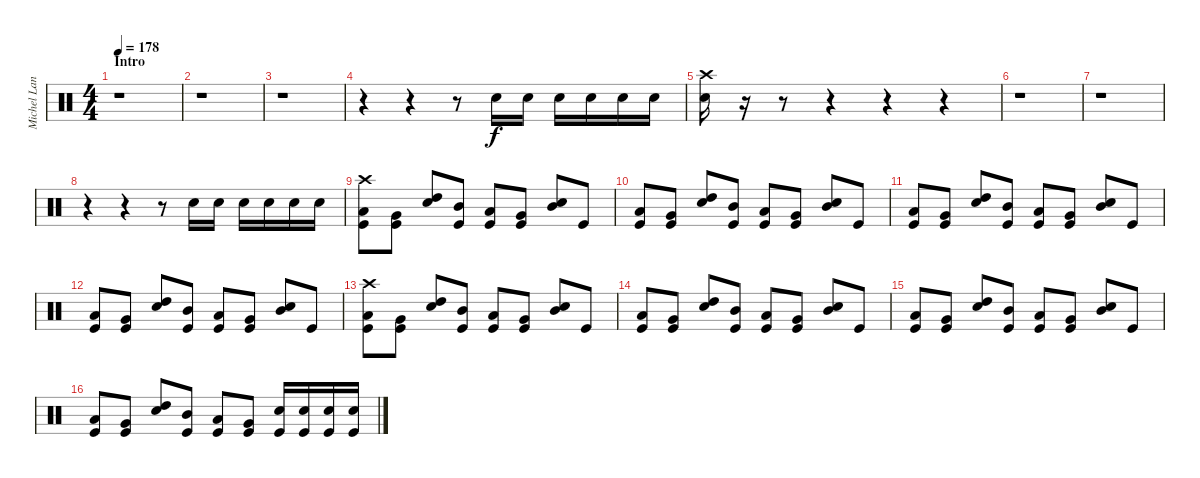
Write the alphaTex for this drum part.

\track ("Michel Langevin [Drums]" "Michel Lan") {instrument percussion}
\staff {score}
\articulation defaults
\ts (4 4)
\section ("" "Intro")
\tempo 178
\clef neutral
\ks c
r.1{dy f} |
r.1 |
r.1 |
r.4 r.4 r.8 "Snare (hit) 2".16 "Snare (hit) 2".16 "Snare (hit) 2".16 "Snare (hit) 2".16 "Snare (hit) 2".16 "Snare (hit) 2".16 |
("Snare (hit) 2" "Crash high (hit)").16 r.16 r.8 r.4 r.4 r.4 |
r.1 |
r.1 |
r.4 r.4 r.8 "Snare (hit) 2".16 "Snare (hit) 2".16 "Snare (hit) 2".16 "Snare (hit) 2".16 "Snare (hit) 2".16 "Snare (hit) 2".16 |
("Kick (hit)" "Low Tom (hit)" "Crash high (hit)").8 ("Kick (hit)" "Very Low Tom (hit)").8 ("Snare (hit) 2" "High Tom (hit)").8 ("Kick (hit)" "Mid Tom (hit)").8 ("Kick (hit)" "Low Tom (hit)").8 ("Kick (hit)" "Very Low Tom (hit)").8 ("Snare (hit) 2" "Mid Tom (hit)").8 "Kick (hit)".8 |
("Kick (hit)" "Low Tom (hit)").8 ("Kick (hit)" "Very Low Tom (hit)").8 ("Snare (hit) 2" "High Tom (hit)").8 ("Kick (hit)" "Mid Tom (hit)").8 ("Kick (hit)" "Low Tom (hit)").8 ("Kick (hit)" "Very Low Tom (hit)").8 ("Snare (hit) 2" "Mid Tom (hit)").8 "Kick (hit)".8 |
("Kick (hit)" "Low Tom (hit)").8 ("Kick (hit)" "Very Low Tom (hit)").8 ("Snare (hit) 2" "High Tom (hit)").8 ("Kick (hit)" "Mid Tom (hit)").8 ("Kick (hit)" "Low Tom (hit)").8 ("Kick (hit)" "Very Low Tom (hit)").8 ("Snare (hit) 2" "Mid Tom (hit)").8 "Kick (hit)".8 |
("Kick (hit)" "Low Tom (hit)").8 ("Kick (hit)" "Very Low Tom (hit)").8 ("Snare (hit) 2" "High Tom (hit)").8 ("Kick (hit)" "Mid Tom (hit)").8 ("Kick (hit)" "Low Tom (hit)").8 ("Kick (hit)" "Very Low Tom (hit)").8 ("Snare (hit) 2" "Mid Tom (hit)").8 "Kick (hit)".8 |
("Kick (hit)" "Low Tom (hit)" "Crash high (hit)").8 ("Kick (hit)" "Very Low Tom (hit)").8 ("Snare (hit) 2" "High Tom (hit)").8 ("Kick (hit)" "Mid Tom (hit)").8 ("Kick (hit)" "Low Tom (hit)").8 ("Kick (hit)" "Very Low Tom (hit)").8 ("Snare (hit) 2" "Mid Tom (hit)").8 "Kick (hit)".8 |
("Kick (hit)" "Low Tom (hit)").8 ("Kick (hit)" "Very Low Tom (hit)").8 ("Snare (hit) 2" "High Tom (hit)").8 ("Kick (hit)" "Mid Tom (hit)").8 ("Kick (hit)" "Low Tom (hit)").8 ("Kick (hit)" "Very Low Tom (hit)").8 ("Snare (hit) 2" "Mid Tom (hit)").8 "Kick (hit)".8 |
("Kick (hit)" "Low Tom (hit)").8 ("Kick (hit)" "Very Low Tom (hit)").8 ("Snare (hit) 2" "High Tom (hit)").8 ("Kick (hit)" "Mid Tom (hit)").8 ("Kick (hit)" "Low Tom (hit)").8 ("Kick (hit)" "Very Low Tom (hit)").8 ("Snare (hit) 2" "Mid Tom (hit)").8 "Kick (hit)".8 |
("Kick (hit)" "Low Tom (hit)").8 ("Kick (hit)" "Very Low Tom (hit)").8 ("Snare (hit) 2" "High Tom (hit)").8 ("Kick (hit)" "Mid Tom (hit)").8 ("Kick (hit)" "Low Tom (hit)").8 ("Kick (hit)" "Very Low Tom (hit)").8 ("Snare (hit) 2" "Kick (hit)").16 ("Snare (hit) 2" "Kick (hit)").16 ("Snare (hit) 2" "Kick (hit)").16 ("Snare (hit) 2" "Kick (hit)").16
